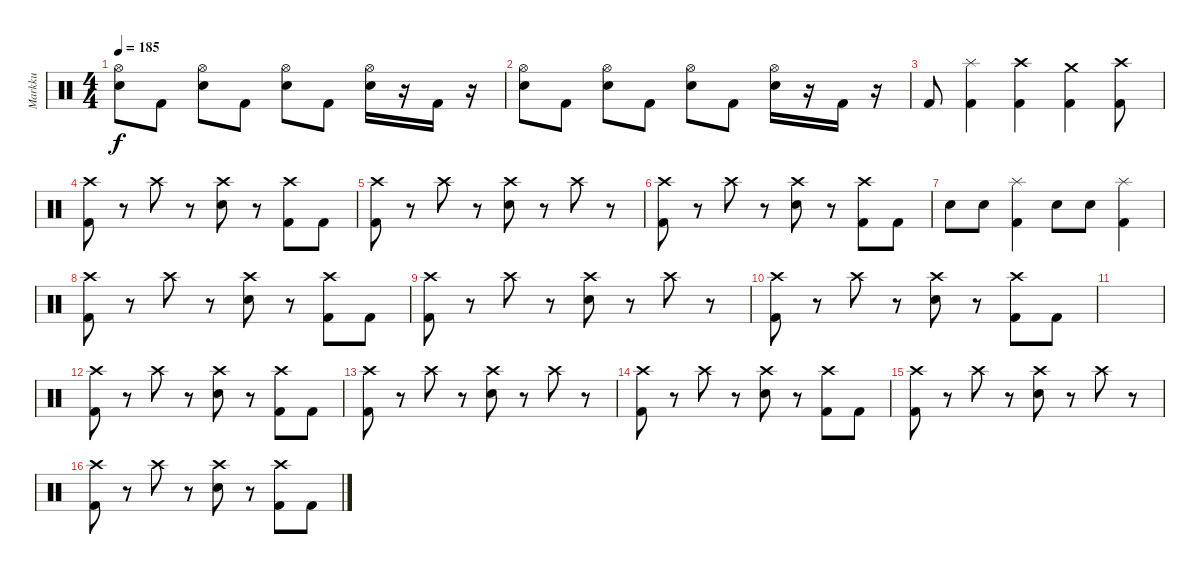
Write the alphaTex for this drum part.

\track ("Markku" "Markku") {instrument percussion}
\staff {score}
\articulation defaults
\ts (4 4)
\tempo 185
\clef neutral
\ks c
("Snare (hit) 2" "Hi-Hat (open)").8{dy f} "Kick (hit) 2".8 ("Snare (hit) 2" "Hi-Hat (open)").8 "Kick (hit) 2".8 ("Snare (hit) 2" "Hi-Hat (open)").8 "Kick (hit) 2".8 ("Snare (hit) 2" "Hi-Hat (open)").16 r.16 "Kick (hit) 2".16 r.16 |
("Snare (hit) 2" "Hi-Hat (open)").8 "Kick (hit) 2".8 ("Snare (hit) 2" "Hi-Hat (open)").8 "Kick (hit) 2".8 ("Snare (hit) 2" "Hi-Hat (open)").8 "Kick (hit) 2".8 ("Snare (hit) 2" "Hi-Hat (open)").16 r.16 "Kick (hit) 2".16 r.16 |
"Kick (hit) 2".8 ("Kick (hit) 2" "Splash (hit)").4 ("Kick (hit) 2" "Crash high (hit)").4 ("Kick (hit) 2" "Crash medium (hit)").4 ("Kick (hit) 2" "Crash high (hit)").8 |
("Kick (hit) 2" "Crash high (hit)").8 r.8 "Crash high (hit)".8 r.8 ("Snare (hit) 2" "Crash high (hit)").8 r.8 ("Kick (hit) 2" "Crash high (hit)").8 "Kick (hit) 2".8 |
("Kick (hit) 2" "Crash high (hit)").8 r.8 "Crash high (hit)".8 r.8 ("Snare (hit) 2" "Crash high (hit)").8 r.8 "Crash high (hit)".8 r.8 |
("Kick (hit) 2" "Crash high (hit)").8 r.8 "Crash high (hit)".8 r.8 ("Snare (hit) 2" "Crash high (hit)").8 r.8 ("Kick (hit) 2" "Crash high (hit)").8 "Kick (hit) 2".8 |
"Snare (hit) 2".8 "Snare (hit) 2".8 ("Kick (hit) 2" "Splash (hit)").4 "Snare (hit) 2".8 "Snare (hit) 2".8 ("Kick (hit) 2" "Splash (hit)").4 |
("Kick (hit) 2" "Crash high (hit)").8 r.8 "Crash high (hit)".8 r.8 ("Snare (hit) 2" "Crash high (hit)").8 r.8 ("Kick (hit) 2" "Crash high (hit)").8 "Kick (hit) 2".8 |
("Kick (hit) 2" "Crash high (hit)").8 r.8 "Crash high (hit)".8 r.8 ("Snare (hit) 2" "Crash high (hit)").8 r.8 "Crash high (hit)".8 r.8 |
("Kick (hit) 2" "Crash high (hit)").8 r.8 "Crash high (hit)".8 r.8 ("Snare (hit) 2" "Crash high (hit)").8 r.8 ("Kick (hit) 2" "Crash high (hit)").8 "Kick (hit) 2".8 |
|
("Kick (hit) 2" "Crash high (hit)").8 r.8 "Crash high (hit)".8 r.8 ("Snare (hit) 2" "Crash high (hit)").8 r.8 ("Kick (hit) 2" "Crash high (hit)").8 "Kick (hit) 2".8 |
("Kick (hit) 2" "Crash high (hit)").8 r.8 "Crash high (hit)".8 r.8 ("Snare (hit) 2" "Crash high (hit)").8 r.8 "Crash high (hit)".8 r.8 |
("Kick (hit) 2" "Crash high (hit)").8 r.8 "Crash high (hit)".8 r.8 ("Snare (hit) 2" "Crash high (hit)").8 r.8 ("Kick (hit) 2" "Crash high (hit)").8 "Kick (hit) 2".8 |
("Kick (hit) 2" "Crash high (hit)").8 r.8 "Crash high (hit)".8 r.8 ("Snare (hit) 2" "Crash high (hit)").8 r.8 "Crash high (hit)".8 r.8 |
("Kick (hit) 2" "Crash high (hit)").8 r.8 "Crash high (hit)".8 r.8 ("Snare (hit) 2" "Crash high (hit)").8 r.8 ("Kick (hit) 2" "Crash high (hit)").8 "Kick (hit) 2".8
